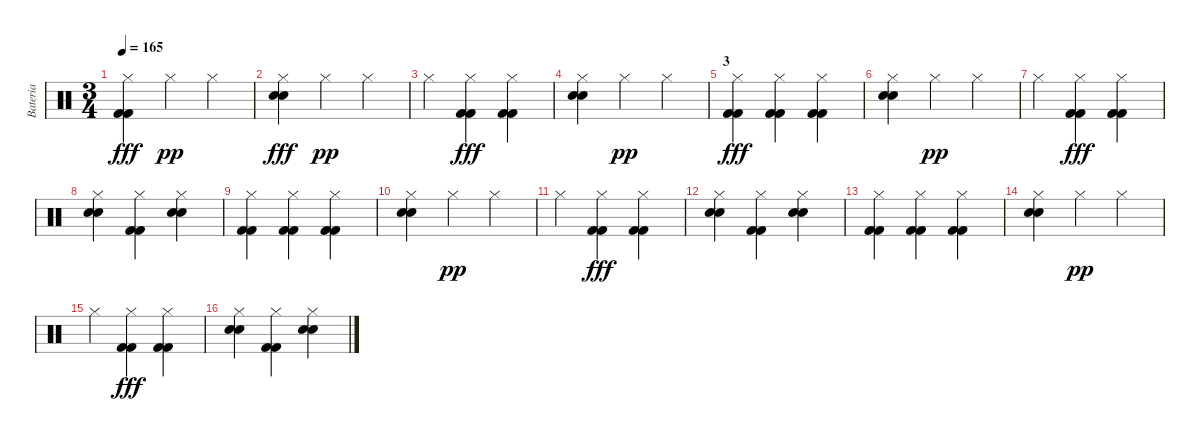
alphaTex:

\track ("Bateria" "Bateria") {instrument percussion}
\staff {score}
\articulation defaults
\ts (3 4)
\tempo 165
\clef neutral
\ks c
("Hi-Hat (closed)" "Kick (hit) 2" "Kick (hit) 2").4{dy fff} "Hi-Hat (closed)".4{dy pp} "Hi-Hat (closed)".4 |
("Hi-Hat (closed)" "Snare (hit) 2" "Electric Snare (hit)").4{dy fff} "Hi-Hat (closed)".4{dy pp} "Hi-Hat (closed)".4 |
"Hi-Hat (closed)".4 ("Hi-Hat (closed)" "Kick (hit) 2" "Kick (hit) 2").4{dy fff} ("Hi-Hat (closed)" "Kick (hit) 2" "Kick (hit) 2").4 |
("Hi-Hat (closed)" "Electric Snare (hit)" "Snare (hit) 2").4 "Hi-Hat (closed)".4{dy pp} "Hi-Hat (closed)".4 |
\section ("" "3")
("Hi-Hat (closed)" "Kick (hit) 2" "Kick (hit) 2").4{dy fff} ("Hi-Hat (closed)" "Kick (hit) 2" "Kick (hit) 2").4 ("Hi-Hat (closed)" "Kick (hit) 2" "Kick (hit) 2").4 |
("Hi-Hat (closed)" "Snare (hit) 2" "Electric Snare (hit)").4 "Hi-Hat (closed)".4{dy pp} "Hi-Hat (closed)".4 |
"Hi-Hat (closed)".4 ("Hi-Hat (closed)" "Kick (hit) 2" "Kick (hit) 2").4{dy fff} ("Hi-Hat (closed)" "Kick (hit) 2" "Kick (hit) 2").4 |
("Hi-Hat (closed)" "Electric Snare (hit)" "Snare (hit) 2").4 ("Hi-Hat (closed)" "Kick (hit) 2" "Kick (hit) 2").4 ("Hi-Hat (closed)" "Electric Snare (hit)" "Snare (hit) 2").4 |
("Hi-Hat (closed)" "Kick (hit) 2" "Kick (hit) 2").4 ("Hi-Hat (closed)" "Kick (hit) 2" "Kick (hit) 2").4 ("Hi-Hat (closed)" "Kick (hit) 2" "Kick (hit) 2").4 |
("Hi-Hat (closed)" "Snare (hit) 2" "Electric Snare (hit)").4 "Hi-Hat (closed)".4{dy pp} "Hi-Hat (closed)".4 |
"Hi-Hat (closed)".4 ("Hi-Hat (closed)" "Kick (hit) 2" "Kick (hit) 2").4{dy fff} ("Hi-Hat (closed)" "Kick (hit) 2" "Kick (hit) 2").4 |
("Hi-Hat (closed)" "Electric Snare (hit)" "Snare (hit) 2").4 ("Hi-Hat (closed)" "Kick (hit) 2" "Kick (hit) 2").4 ("Hi-Hat (closed)" "Electric Snare (hit)" "Snare (hit) 2").4 |
("Hi-Hat (closed)" "Kick (hit) 2" "Kick (hit) 2").4 ("Hi-Hat (closed)" "Kick (hit) 2" "Kick (hit) 2").4 ("Hi-Hat (closed)" "Kick (hit) 2" "Kick (hit) 2").4 |
("Hi-Hat (closed)" "Snare (hit) 2" "Electric Snare (hit)").4 "Hi-Hat (closed)".4{dy pp} "Hi-Hat (closed)".4 |
"Hi-Hat (closed)".4 ("Hi-Hat (closed)" "Kick (hit) 2" "Kick (hit) 2").4{dy fff} ("Hi-Hat (closed)" "Kick (hit) 2" "Kick (hit) 2").4 |
("Hi-Hat (closed)" "Electric Snare (hit)" "Snare (hit) 2").4 ("Hi-Hat (closed)" "Kick (hit) 2" "Kick (hit) 2").4 ("Hi-Hat (closed)" "Electric Snare (hit)" "Snare (hit) 2").4
